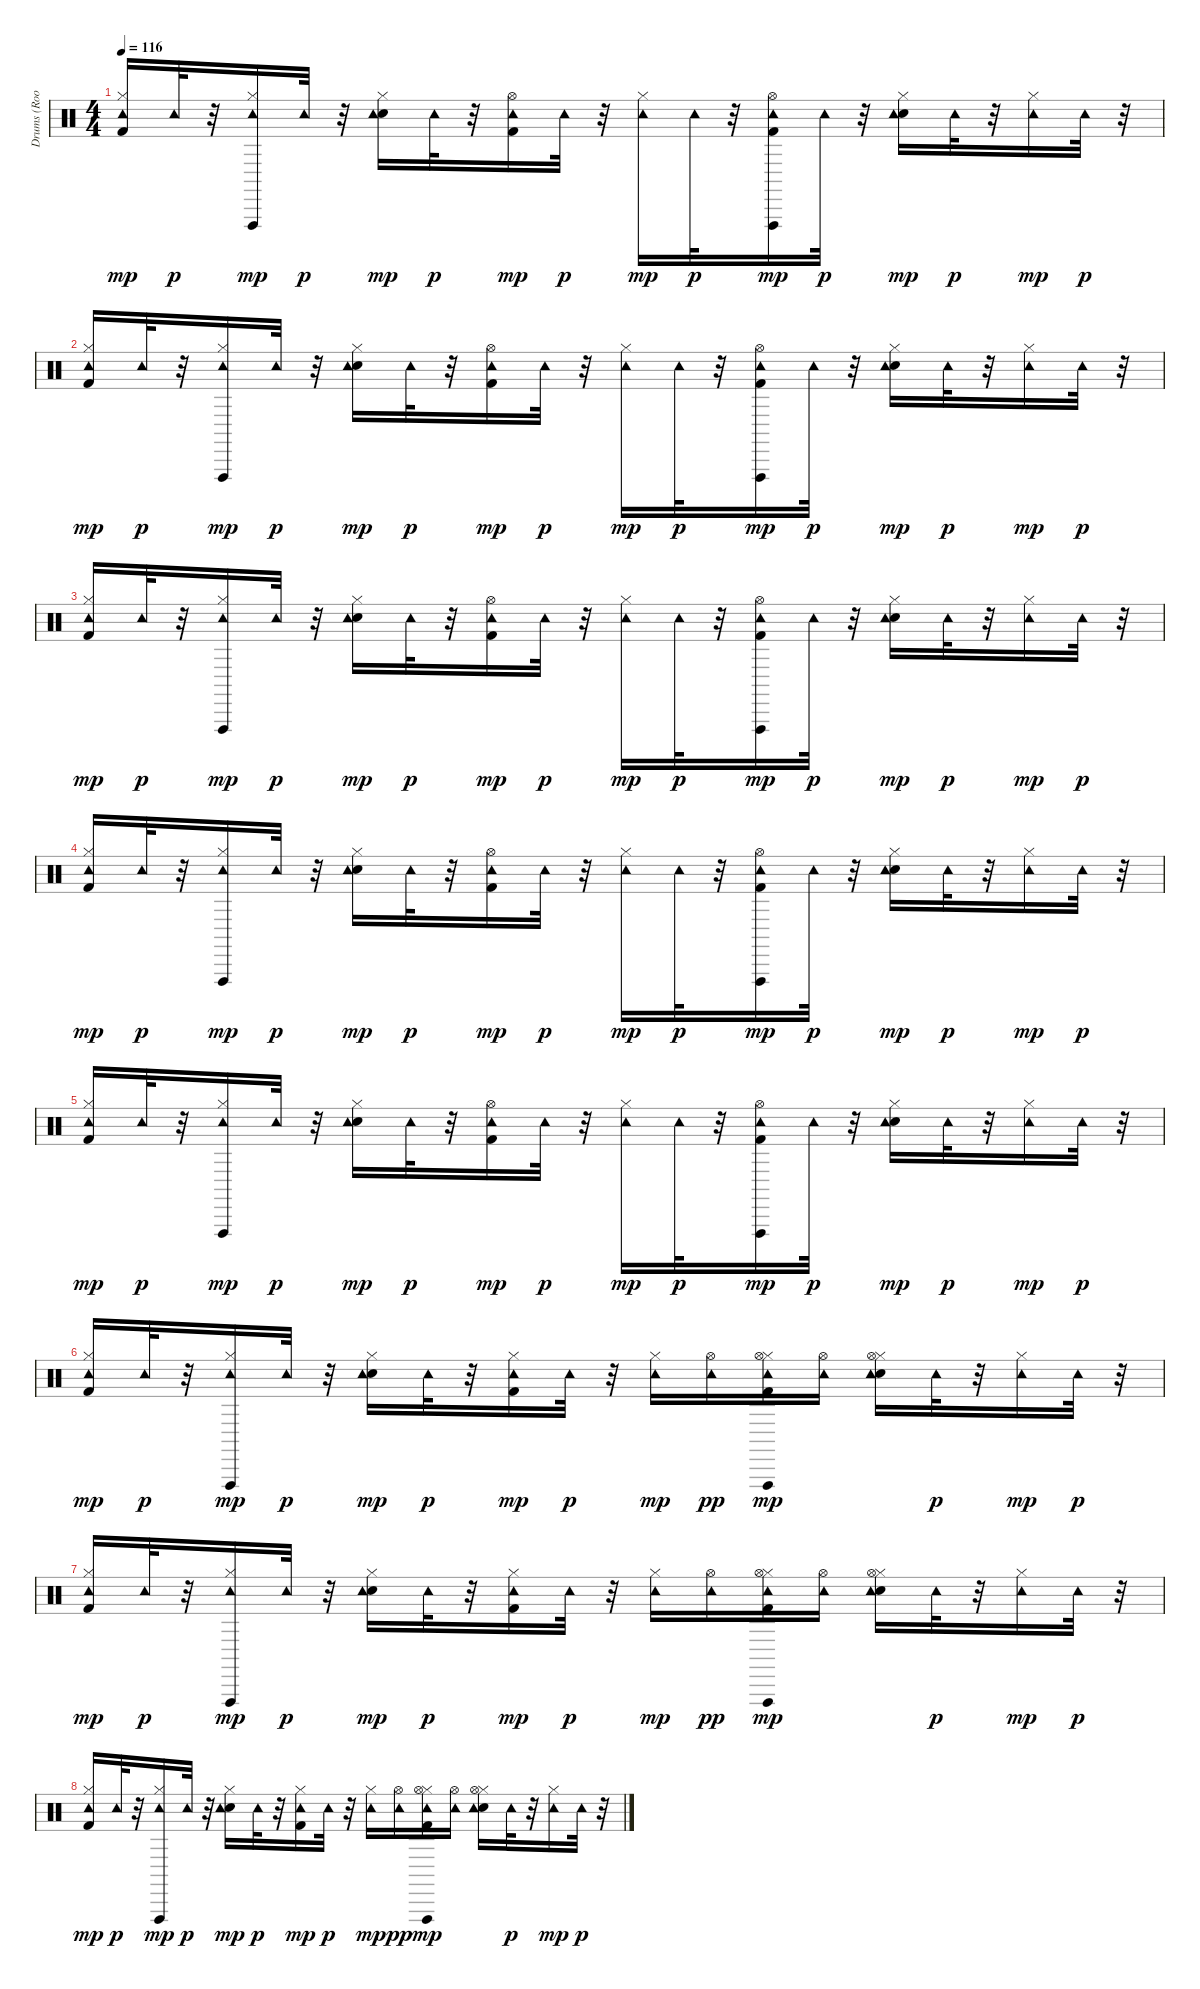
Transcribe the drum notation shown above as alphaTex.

\track ("Drums (Room Kit)    " "Drums (Roo") {instrument percussion}
\staff {score}
\articulation defaults
\ts (4 4)
\tempo 116
\clef neutral
\ks c
("Hi-Hat (closed)" "Kick (hit) 2" "Tambourine (hit)").16{dy mp} "Tambourine (hit)".32{dy p} r.32 ("Hi-Hat (closed)" "Tambourine (hit)" "Vibraslap (hit)").16{dy mp} "Tambourine (hit)".32{dy p} r.32 ("Snare (hit) 2" "Tambourine (hit)" "Hi-Hat (closed)").16{dy mp} "Tambourine (hit)".32{dy p} r.32 ("Kick (hit) 2" "Tambourine (hit)" "Hi-Hat (open)").16{dy mp} "Tambourine (hit)".32{dy p} r.32 ("Hi-Hat (closed)" "Tambourine (hit)").16{dy mp} "Tambourine (hit)".32{dy p} r.32 ("Kick (hit) 2" "Tambourine (hit)" "Vibraslap (hit)" "Hi-Hat (open)").16{dy mp} "Tambourine (hit)".32{dy p} r.32 ("Hi-Hat (closed)" "Snare (hit) 2" "Tambourine (hit)").16{dy mp} "Tambourine (hit)".32{dy p} r.32 ("Hi-Hat (closed)" "Tambourine (hit)").16{dy mp} "Tambourine (hit)".32{dy p} r.32 |
("Kick (hit) 2" "Hi-Hat (closed)" "Tambourine (hit)").16{dy mp} "Tambourine (hit)".32{dy p} r.32 ("Hi-Hat (closed)" "Tambourine (hit)" "Vibraslap (hit)").16{dy mp} "Tambourine (hit)".32{dy p} r.32 ("Snare (hit) 2" "Hi-Hat (closed)" "Tambourine (hit)").16{dy mp} "Tambourine (hit)".32{dy p} r.32 ("Kick (hit) 2" "Tambourine (hit)" "Hi-Hat (open)").16{dy mp} "Tambourine (hit)".32{dy p} r.32 ("Hi-Hat (closed)" "Tambourine (hit)").16{dy mp} "Tambourine (hit)".32{dy p} r.32 ("Kick (hit) 2" "Tambourine (hit)" "Vibraslap (hit)" "Hi-Hat (open)").16{dy mp} "Tambourine (hit)".32{dy p} r.32 ("Snare (hit) 2" "Hi-Hat (closed)" "Tambourine (hit)").16{dy mp} "Tambourine (hit)".32{dy p} r.32 ("Hi-Hat (closed)" "Tambourine (hit)").16{dy mp} "Tambourine (hit)".32{dy p} r.32 |
("Hi-Hat (closed)" "Kick (hit) 2" "Tambourine (hit)").16{dy mp} "Tambourine (hit)".32{dy p} r.32 ("Hi-Hat (closed)" "Tambourine (hit)" "Vibraslap (hit)").16{dy mp} "Tambourine (hit)".32{dy p} r.32 ("Hi-Hat (closed)" "Snare (hit) 2" "Tambourine (hit)").16{dy mp} "Tambourine (hit)".32{dy p} r.32 ("Kick (hit) 2" "Tambourine (hit)" "Hi-Hat (open)").16{dy mp} "Tambourine (hit)".32{dy p} r.32 ("Hi-Hat (closed)" "Tambourine (hit)").16{dy mp} "Tambourine (hit)".32{dy p} r.32 ("Kick (hit) 2" "Tambourine (hit)" "Vibraslap (hit)" "Hi-Hat (open)").16{dy mp} "Tambourine (hit)".32{dy p} r.32 ("Hi-Hat (closed)" "Snare (hit) 2" "Tambourine (hit)").16{dy mp} "Tambourine (hit)".32{dy p} r.32 ("Hi-Hat (closed)" "Tambourine (hit)").16{dy mp} "Tambourine (hit)".32{dy p} r.32 |
("Kick (hit) 2" "Hi-Hat (closed)" "Tambourine (hit)").16{dy mp} "Tambourine (hit)".32{dy p} r.32 ("Hi-Hat (closed)" "Tambourine (hit)" "Vibraslap (hit)").16{dy mp} "Tambourine (hit)".32{dy p} r.32 ("Snare (hit) 2" "Hi-Hat (closed)" "Tambourine (hit)").16{dy mp} "Tambourine (hit)".32{dy p} r.32 ("Kick (hit) 2" "Tambourine (hit)" "Hi-Hat (open)").16{dy mp} "Tambourine (hit)".32{dy p} r.32 ("Hi-Hat (closed)" "Tambourine (hit)").16{dy mp} "Tambourine (hit)".32{dy p} r.32 ("Kick (hit) 2" "Tambourine (hit)" "Vibraslap (hit)" "Hi-Hat (open)").16{dy mp} "Tambourine (hit)".32{dy p} r.32 ("Snare (hit) 2" "Hi-Hat (closed)" "Tambourine (hit)").16{dy mp} "Tambourine (hit)".32{dy p} r.32 ("Hi-Hat (closed)" "Tambourine (hit)").16{dy mp} "Tambourine (hit)".32{dy p} r.32 |
("Hi-Hat (closed)" "Kick (hit) 2" "Tambourine (hit)").16{dy mp} "Tambourine (hit)".32{dy p} r.32 ("Hi-Hat (closed)" "Tambourine (hit)" "Vibraslap (hit)").16{dy mp} "Tambourine (hit)".32{dy p} r.32 ("Hi-Hat (closed)" "Snare (hit) 2" "Tambourine (hit)").16{dy mp} "Tambourine (hit)".32{dy p} r.32 ("Kick (hit) 2" "Tambourine (hit)" "Hi-Hat (open)").16{dy mp} "Tambourine (hit)".32{dy p} r.32 ("Hi-Hat (closed)" "Tambourine (hit)").16{dy mp} "Tambourine (hit)".32{dy p} r.32 ("Kick (hit) 2" "Tambourine (hit)" "Vibraslap (hit)" "Hi-Hat (open)").16{dy mp} "Tambourine (hit)".32{dy p} r.32 ("Hi-Hat (closed)" "Snare (hit) 2" "Tambourine (hit)").16{dy mp} "Tambourine (hit)".32{dy p} r.32 ("Hi-Hat (closed)" "Tambourine (hit)").16{dy mp} "Tambourine (hit)".32{dy p} r.32 |
("Kick (hit) 2" "Hi-Hat (closed)" "Tambourine (hit)").16{dy mp} "Tambourine (hit)".32{dy p} r.32 ("Hi-Hat (closed)" "Tambourine (hit)" "Vibraslap (hit)").16{dy mp} "Tambourine (hit)".32{dy p} r.32 ("Snare (hit) 2" "Hi-Hat (closed)" "Tambourine (hit)").16{dy mp} "Tambourine (hit)".32{dy p} r.32 ("Kick (hit) 2" "Hi-Hat (closed)" "Tambourine (hit)").16{dy mp} "Tambourine (hit)".32{dy p} r.32 ("Hi-Hat (closed)" "Tambourine (hit)").16{dy mp} ("Tambourine (hit)" "Hi-Hat (open)").16{dy pp} ("Kick (hit) 2" "Hi-Hat (closed)" "Tambourine (hit)" "Hi-Hat (open)" "Vibraslap (hit)").16{dy mp} ("Tambourine (hit)" "Hi-Hat (open)").16 ("Snare (hit) 2" "Hi-Hat (closed)" "Tambourine (hit)" "Hi-Hat (open)").16 "Tambourine (hit)".32{dy p} r.32 ("Hi-Hat (closed)" "Tambourine (hit)").16{dy mp} "Tambourine (hit)".32{dy p} r.32 |
("Hi-Hat (closed)" "Kick (hit) 2" "Tambourine (hit)").16{dy mp} "Tambourine (hit)".32{dy p} r.32 ("Hi-Hat (closed)" "Tambourine (hit)" "Vibraslap (hit)").16{dy mp} "Tambourine (hit)".32{dy p} r.32 ("Hi-Hat (closed)" "Snare (hit) 2" "Tambourine (hit)").16{dy mp} "Tambourine (hit)".32{dy p} r.32 ("Hi-Hat (closed)" "Kick (hit) 2" "Tambourine (hit)").16{dy mp} "Tambourine (hit)".32{dy p} r.32 ("Hi-Hat (closed)" "Tambourine (hit)").16{dy mp} ("Tambourine (hit)" "Hi-Hat (open)").16{dy pp} ("Hi-Hat (closed)" "Kick (hit) 2" "Tambourine (hit)" "Hi-Hat (open)" "Vibraslap (hit)").16{dy mp} ("Tambourine (hit)" "Hi-Hat (open)").16 ("Hi-Hat (closed)" "Snare (hit) 2" "Tambourine (hit)" "Hi-Hat (open)").16 "Tambourine (hit)".32{dy p} r.32 ("Hi-Hat (closed)" "Tambourine (hit)").16{dy mp} "Tambourine (hit)".32{dy p} r.32 |
("Kick (hit) 2" "Hi-Hat (closed)" "Tambourine (hit)").16{dy mp} "Tambourine (hit)".32{dy p} r.32 ("Hi-Hat (closed)" "Tambourine (hit)" "Vibraslap (hit)").16{dy mp} "Tambourine (hit)".32{dy p} r.32 ("Snare (hit) 2" "Hi-Hat (closed)" "Tambourine (hit)").16{dy mp} "Tambourine (hit)".32{dy p} r.32 ("Kick (hit) 2" "Hi-Hat (closed)" "Tambourine (hit)").16{dy mp} "Tambourine (hit)".32{dy p} r.32 ("Hi-Hat (closed)" "Tambourine (hit)").16{dy mp} ("Tambourine (hit)" "Hi-Hat (open)").16{dy pp} ("Kick (hit) 2" "Hi-Hat (closed)" "Tambourine (hit)" "Hi-Hat (open)" "Vibraslap (hit)").16{dy mp} ("Tambourine (hit)" "Hi-Hat (open)").16 ("Snare (hit) 2" "Hi-Hat (closed)" "Tambourine (hit)" "Hi-Hat (open)").16 "Tambourine (hit)".32{dy p} r.32 ("Hi-Hat (closed)" "Tambourine (hit)").16{dy mp} "Tambourine (hit)".32{dy p} r.32
